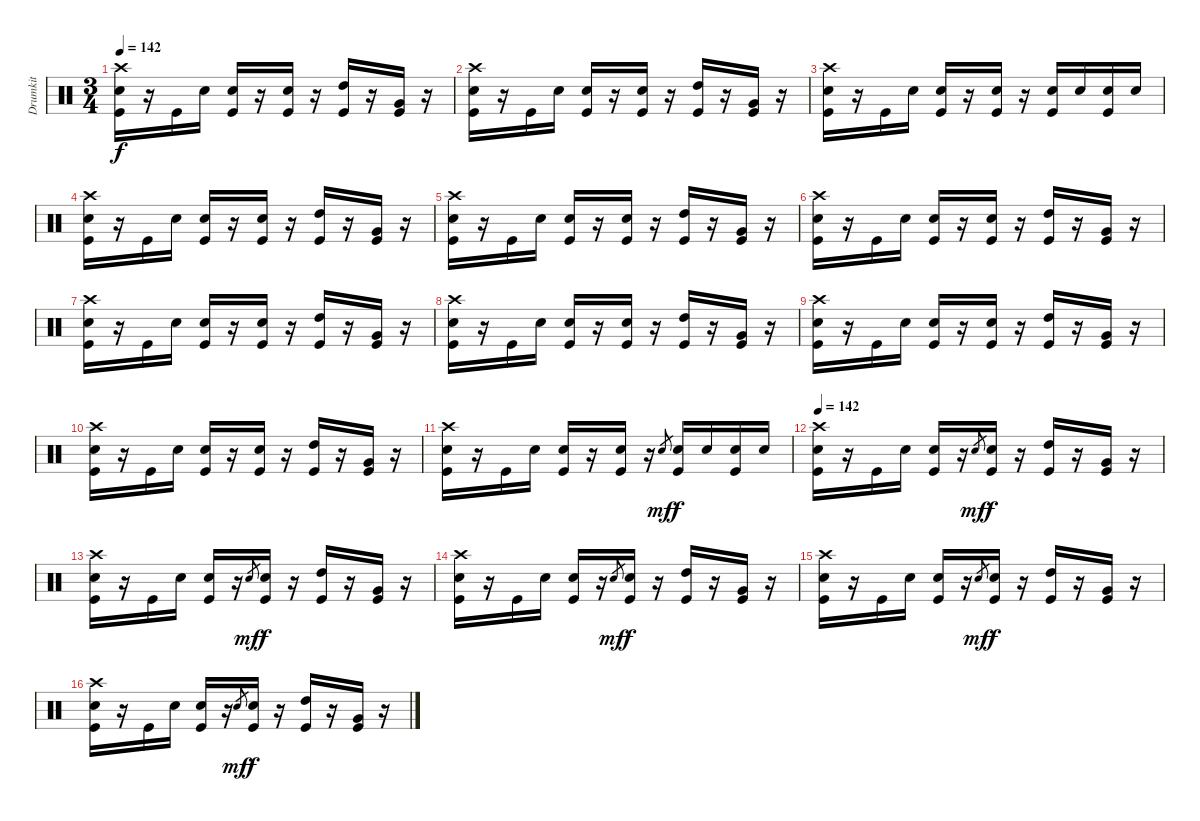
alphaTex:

\track ("Drumkit" "Drumkit") {instrument percussion}
\staff {score}
\articulation defaults
\ts (3 4)
\tempo 142
\clef neutral
\ks c
("Crash high (hit)" "Snare (hit) 2" "Kick (hit)").16{dy f} r.16 "Kick (hit)".16 "Snare (hit) 2".16 ("Snare (hit) 2" "Kick (hit)").16 r.16 ("Snare (hit) 2" "Kick (hit)").16 r.16 ("High Tom (hit)" "Kick (hit)").16 r.16 ("Very Low Tom (hit)" "Kick (hit)").16 r.16 |
("Crash high (hit)" "Snare (hit) 2" "Kick (hit)").16 r.16 "Kick (hit)".16 "Snare (hit) 2".16 ("Snare (hit) 2" "Kick (hit)").16 r.16 ("Snare (hit) 2" "Kick (hit)").16 r.16 ("High Tom (hit)" "Kick (hit)").16 r.16 ("Very Low Tom (hit)" "Kick (hit)").16 r.16 |
("Crash high (hit)" "Snare (hit) 2" "Kick (hit)").16 r.16 "Kick (hit)".16 "Snare (hit) 2".16 ("Snare (hit) 2" "Kick (hit)").16 r.16 ("Snare (hit) 2" "Kick (hit)").16 r.16 ("Snare (hit) 2" "Kick (hit)").16 "Snare (hit) 2".16 ("Snare (hit) 2" "Kick (hit)").16 "Snare (hit) 2".16 |
("Crash high (hit)" "Snare (hit) 2" "Kick (hit)").16 r.16 "Kick (hit)".16 "Snare (hit) 2".16 ("Snare (hit) 2" "Kick (hit)").16 r.16 ("Snare (hit) 2" "Kick (hit)").16 r.16 ("High Tom (hit)" "Kick (hit)").16 r.16 ("Very Low Tom (hit)" "Kick (hit)").16 r.16 |
("Crash high (hit)" "Snare (hit) 2" "Kick (hit)").16 r.16 "Kick (hit)".16 "Snare (hit) 2".16 ("Snare (hit) 2" "Kick (hit)").16 r.16 ("Snare (hit) 2" "Kick (hit)").16 r.16 ("High Tom (hit)" "Kick (hit)").16 r.16 ("Very Low Tom (hit)" "Kick (hit)").16 r.16 |
("Crash high (hit)" "Snare (hit) 2" "Kick (hit)").16 r.16 "Kick (hit)".16 "Snare (hit) 2".16 ("Snare (hit) 2" "Kick (hit)").16 r.16 ("Snare (hit) 2" "Kick (hit)").16 r.16 ("High Tom (hit)" "Kick (hit)").16 r.16 ("Very Low Tom (hit)" "Kick (hit)").16 r.16 |
("Crash high (hit)" "Snare (hit) 2" "Kick (hit)").16 r.16 "Kick (hit)".16 "Snare (hit) 2".16 ("Snare (hit) 2" "Kick (hit)").16 r.16 ("Snare (hit) 2" "Kick (hit)").16 r.16 ("High Tom (hit)" "Kick (hit)").16 r.16 ("Very Low Tom (hit)" "Kick (hit)").16 r.16 |
("Crash high (hit)" "Snare (hit) 2" "Kick (hit)").16 r.16 "Kick (hit)".16 "Snare (hit) 2".16 ("Snare (hit) 2" "Kick (hit)").16 r.16 ("Snare (hit) 2" "Kick (hit)").16 r.16 ("High Tom (hit)" "Kick (hit)").16 r.16 ("Very Low Tom (hit)" "Kick (hit)").16 r.16 |
("Crash high (hit)" "Snare (hit) 2" "Kick (hit)").16 r.16 "Kick (hit)".16 "Snare (hit) 2".16 ("Snare (hit) 2" "Kick (hit)").16 r.16 ("Snare (hit) 2" "Kick (hit)").16 r.16 ("High Tom (hit)" "Kick (hit)").16 r.16 ("Very Low Tom (hit)" "Kick (hit)").16 r.16 |
("Crash high (hit)" "Snare (hit) 2" "Kick (hit)").16 r.16 "Kick (hit)".16 "Snare (hit) 2".16 ("Snare (hit) 2" "Kick (hit)").16 r.16 ("Snare (hit) 2" "Kick (hit)").16 r.16 ("High Tom (hit)" "Kick (hit)").16 r.16 ("Very Low Tom (hit)" "Kick (hit)").16 r.16 |
("Crash high (hit)" "Snare (hit) 2" "Kick (hit)").16 r.16 "Kick (hit)".16 "Snare (hit) 2".16 ("Snare (hit) 2" "Kick (hit)").16 r.16 ("Snare (hit) 2" "Kick (hit)").16 r.16 "Snare (hit)".8{gr dy mf} ("Snare (hit) 2" "Kick (hit)").16{dy f} "Snare (hit) 2".16 ("Snare (hit) 2" "Kick (hit)").16 "Snare (hit) 2".16 |
\tempo 142
("Crash high (hit)" "Snare (hit) 2" "Kick (hit)").16 r.16 "Kick (hit)".16 "Snare (hit) 2".16 ("Snare (hit) 2" "Kick (hit)").16 r.16 "Snare (hit)".8{gr dy mf} ("Snare (hit) 2" "Kick (hit)").16{dy f} r.16 ("High Tom (hit)" "Kick (hit)").16 r.16 ("Very Low Tom (hit)" "Kick (hit)").16 r.16 |
("Crash high (hit)" "Snare (hit) 2" "Kick (hit)").16 r.16 "Kick (hit)".16 "Snare (hit) 2".16 ("Snare (hit) 2" "Kick (hit)").16 r.16 "Snare (hit)".8{gr dy mf} ("Snare (hit) 2" "Kick (hit)").16{dy f} r.16 ("High Tom (hit)" "Kick (hit)").16 r.16 ("Very Low Tom (hit)" "Kick (hit)").16 r.16 |
("Crash high (hit)" "Snare (hit) 2" "Kick (hit)").16 r.16 "Kick (hit)".16 "Snare (hit) 2".16 ("Snare (hit) 2" "Kick (hit)").16 r.16 "Snare (hit)".8{gr dy mf} ("Snare (hit) 2" "Kick (hit)").16{dy f} r.16 ("High Tom (hit)" "Kick (hit)").16 r.16 ("Very Low Tom (hit)" "Kick (hit)").16 r.16 |
("Crash high (hit)" "Snare (hit) 2" "Kick (hit)").16 r.16 "Kick (hit)".16 "Snare (hit) 2".16 ("Snare (hit) 2" "Kick (hit)").16 r.16 "Snare (hit)".8{gr dy mf} ("Snare (hit) 2" "Kick (hit)").16{dy f} r.16 ("High Tom (hit)" "Kick (hit)").16 r.16 ("Very Low Tom (hit)" "Kick (hit)").16 r.16 |
("Crash high (hit)" "Snare (hit) 2" "Kick (hit)").16 r.16 "Kick (hit)".16 "Snare (hit) 2".16 ("Snare (hit) 2" "Kick (hit)").16 r.16 "Snare (hit)".8{gr dy mf} ("Snare (hit) 2" "Kick (hit)").16{dy f} r.16 ("High Tom (hit)" "Kick (hit)").16 r.16 ("Very Low Tom (hit)" "Kick (hit)").16 r.16
